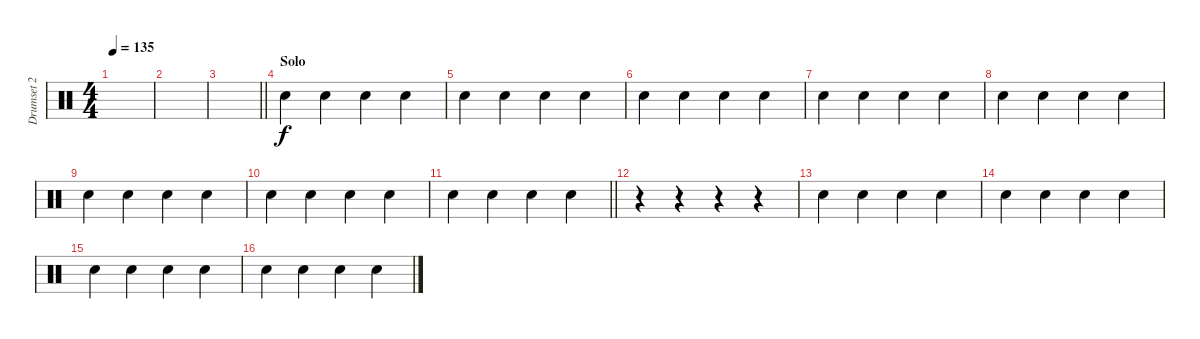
\track ("Drumset 2" "Drumset 2") {instrument percussion}
\staff {score}
\articulation defaults
\ts (4 4)
\tempo 135
\clef neutral
\ks c
|
|
\barLineRight lightlight
|
\section ("" "Solo")
"Electric Snare (hit)".4 "Electric Snare (hit)".4 "Electric Snare (hit)".4 "Electric Snare (hit)".4 |
"Electric Snare (hit)".4 "Electric Snare (hit)".4 "Electric Snare (hit)".4 "Electric Snare (hit)".4 |
"Electric Snare (hit)".4 "Electric Snare (hit)".4 "Electric Snare (hit)".4 "Electric Snare (hit)".4 |
"Electric Snare (hit)".4 "Electric Snare (hit)".4 "Electric Snare (hit)".4 "Electric Snare (hit)".4 |
"Electric Snare (hit)".4 "Electric Snare (hit)".4 "Electric Snare (hit)".4 "Electric Snare (hit)".4 |
"Electric Snare (hit)".4 "Electric Snare (hit)".4 "Electric Snare (hit)".4 "Electric Snare (hit)".4 |
"Electric Snare (hit)".4 "Electric Snare (hit)".4 "Electric Snare (hit)".4 "Electric Snare (hit)".4 |
\barLineRight lightlight "Electric Snare (hit)".4 "Electric Snare (hit)".4 "Electric Snare (hit)".4 "Electric Snare (hit)".4
|
r.4 r.4 r.4 r.4 |
"Electric Snare (hit)".4 "Electric Snare (hit)".4 "Electric Snare (hit)".4 "Electric Snare (hit)".4 |
"Electric Snare (hit)".4 "Electric Snare (hit)".4 "Electric Snare (hit)".4 "Electric Snare (hit)".4 |
"Electric Snare (hit)".4 "Electric Snare (hit)".4 "Electric Snare (hit)".4 "Electric Snare (hit)".4 |
"Electric Snare (hit)".4 "Electric Snare (hit)".4 "Electric Snare (hit)".4 "Electric Snare (hit)".4
